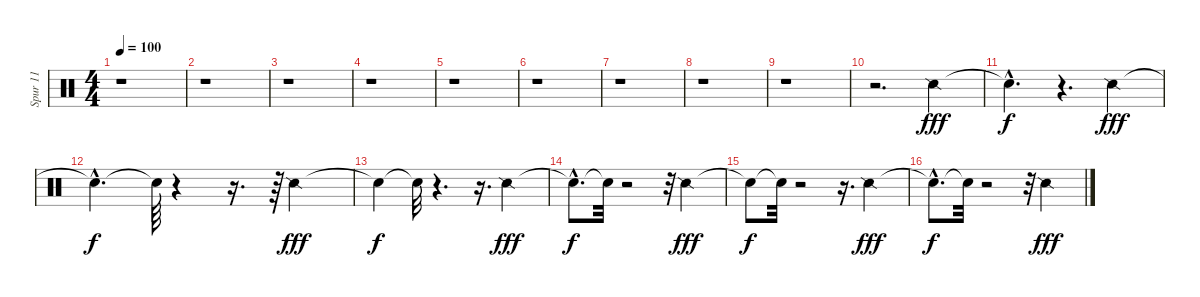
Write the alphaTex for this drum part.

\track ("Spur 11" "Spur 11") {instrument percussion}
\staff {score}
\articulation defaults
\ts (4 4)
\tempo 100
\clef neutral
\ks c
r.1{dy fff} |
r.1 |
r.1 |
r.1 |
r.1 |
r.1 |
r.1 |
r.1 |
r.1 |
r.2{d} "Snare (side stick) 2".4 |
"Snare (hit)"{hac t}.4{d dy f} r.4{d} "Snare (side stick) 2".4{dy fff} |
"Snare (hit)"{hac t}.4{d dy f} "Snare (hit)"{t}.64 r.4 r.16{d} r.64 "Snare (side stick) 2".4{dy fff} |
"Snare (hit)"{t}.4{dy f} "Snare (hit)"{t}.32 r.4{d} r.16{d} "Snare (side stick) 2".4{dy fff} |
"Snare (hit)"{hac t}.8{d dy f} "Snare (hit)"{t}.32 r.2 r.32 "Snare (side stick) 2".4{dy fff} |
"Snare (hit)"{t}.8{dy f} "Snare (hit)"{t}.32 r.2 r.16{d} "Snare (side stick) 2".4{dy fff} |
"Snare (hit)"{hac t}.8{d dy f} "Snare (hit)"{t}.32 r.2 r.32 "Snare (side stick) 2".4{dy fff}
